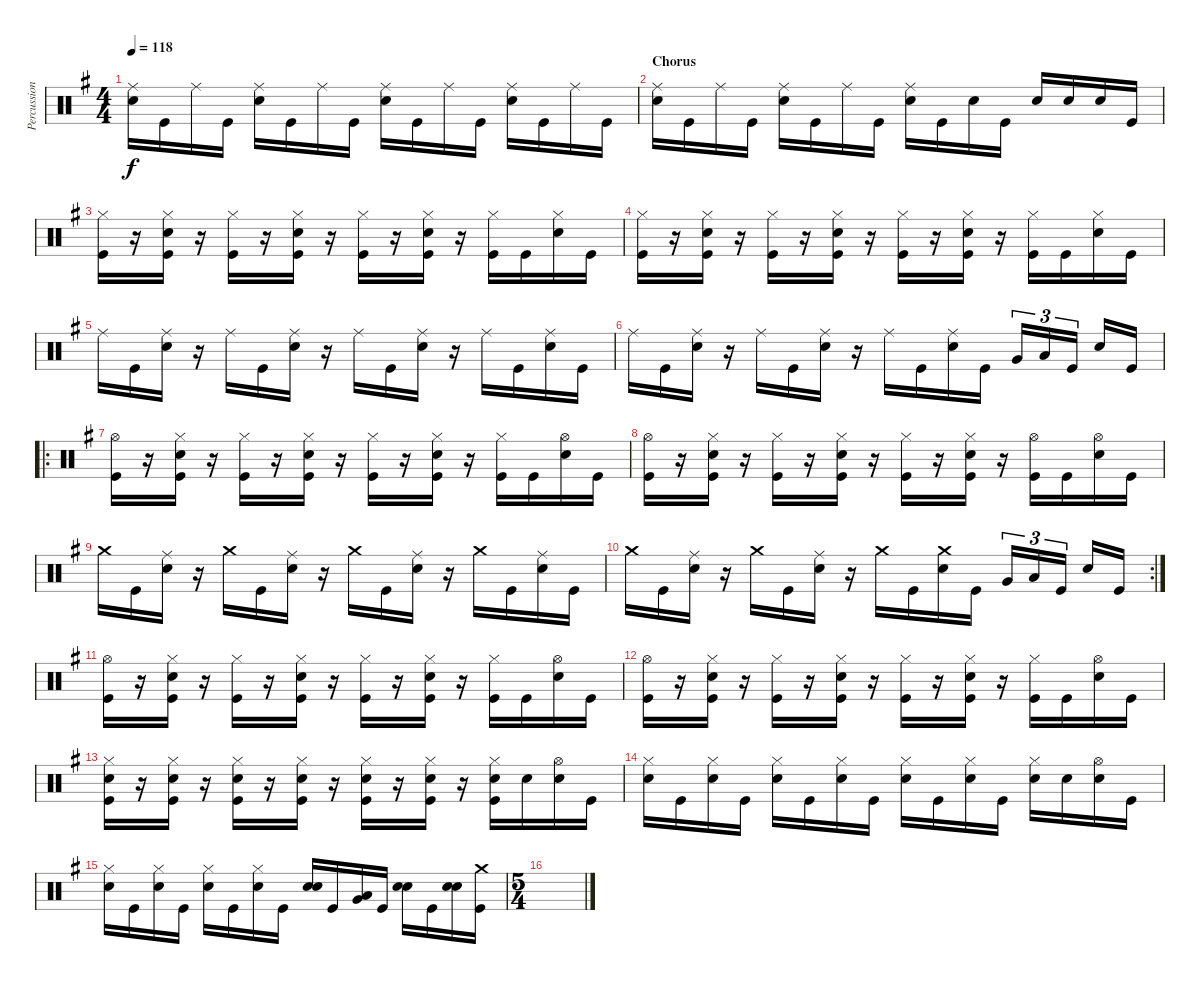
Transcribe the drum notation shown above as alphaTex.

\track ("Percussion" "Percussion") {instrument percussion}
\staff {score}
\articulation defaults
\ts (4 4)
\tempo 118
\clef neutral
\ks g
("Ride (middle)" "Electric Snare (hit)").16{dy f} "Kick (hit)".16 "Ride (middle)".16 "Kick (hit)".16 ("Ride (middle)" "Electric Snare (hit)").16 "Kick (hit)".16 "Ride (middle)".16 "Kick (hit)".16 ("Ride (middle)" "Electric Snare (hit)").16 "Kick (hit)".16 "Ride (middle)".16 "Kick (hit)".16 ("Ride (middle)" "Electric Snare (hit)").16 "Kick (hit)".16 "Ride (middle)".16 "Kick (hit)".16 |
\section ("" "Chorus")
("Ride (middle)" "Electric Snare (hit)").16 "Kick (hit)".16 "Ride (middle)".16 "Kick (hit)".16 ("Ride (middle)" "Electric Snare (hit)").16 "Kick (hit)".16 "Ride (middle)".16 "Kick (hit)".16 ("Ride (middle)" "Electric Snare (hit)").16 "Kick (hit)".16 "Electric Snare (hit)".16 "Kick (hit)".16 "Electric Snare (hit)".16 "Electric Snare (hit)".16 "Electric Snare (hit)".16 "Kick (hit)".16 |
("Hi-Hat (closed)" "Kick (hit)").16 r.16 ("Hi-Hat (closed)" "Electric Snare (hit)" "Kick (hit)").16 r.16 ("Hi-Hat (closed)" "Kick (hit)").16 r.16 ("Hi-Hat (closed)" "Electric Snare (hit)" "Kick (hit)").16 r.16 ("Hi-Hat (closed)" "Kick (hit)").16 r.16 ("Hi-Hat (closed)" "Electric Snare (hit)" "Kick (hit)").16 r.16 ("Hi-Hat (closed)" "Kick (hit)").16 "Kick (hit)".16 ("Hi-Hat (closed)" "Electric Snare (hit)").16 "Kick (hit)".16 |
("Hi-Hat (closed)" "Kick (hit)").16 r.16 ("Hi-Hat (closed)" "Electric Snare (hit)" "Kick (hit)").16 r.16 ("Hi-Hat (closed)" "Kick (hit)").16 r.16 ("Hi-Hat (closed)" "Electric Snare (hit)" "Kick (hit)").16 r.16 ("Hi-Hat (closed)" "Kick (hit)").16 r.16 ("Hi-Hat (closed)" "Electric Snare (hit)" "Kick (hit)").16 r.16 ("Hi-Hat (closed)" "Kick (hit)").16 "Kick (hit)".16 ("Hi-Hat (closed)" "Electric Snare (hit)").16 "Kick (hit)".16 |
"Ride (middle)".16 "Kick (hit)".16 ("Ride (middle)" "Electric Snare (hit)").16 r.16 "Ride (middle)".16 "Kick (hit)".16 ("Ride (middle)" "Electric Snare (hit)").16 r.16 "Ride (middle)".16 "Kick (hit)".16 ("Ride (middle)" "Electric Snare (hit)").16 r.16 "Ride (middle)".16 "Kick (hit)".16 ("Ride (middle)" "Electric Snare (hit)").16 "Kick (hit)".16 |
"Ride (middle)".16 "Kick (hit)".16 ("Ride (middle)" "Electric Snare (hit)").16 r.16 "Ride (middle)".16 "Kick (hit)".16 ("Ride (middle)" "Electric Snare (hit)").16 r.16 "Ride (middle)".16 "Kick (hit)".16 ("Ride (middle)" "Electric Snare (hit)").16 "Kick (hit)".16 "Very Low Tom (hit)".16{tu (3 2)} "Low Floor Tom (hit)".16{tu (3 2)} "Kick (hit)".16{tu (3 2)} "Electric Snare (hit)".16 "Kick (hit)".16 |
\ro
("Hi-Hat (open)" "Kick (hit)").16 r.16 ("Hi-Hat (closed)" "Electric Snare (hit)" "Kick (hit)").16 r.16 ("Hi-Hat (closed)" "Kick (hit)").16 r.16 ("Hi-Hat (closed)" "Electric Snare (hit)" "Kick (hit)").16 r.16 ("Hi-Hat (closed)" "Kick (hit)").16 r.16 ("Hi-Hat (closed)" "Electric Snare (hit)" "Kick (hit)").16 r.16 ("Hi-Hat (closed)" "Kick (hit)").16 "Kick (hit)".16 ("Hi-Hat (open)" "Electric Snare (hit)").16 "Kick (hit)".16 |
("Hi-Hat (open)" "Kick (hit)").16 r.16 ("Hi-Hat (closed)" "Electric Snare (hit)" "Kick (hit)").16 r.16 ("Hi-Hat (closed)" "Kick (hit)").16 r.16 ("Hi-Hat (closed)" "Electric Snare (hit)" "Kick (hit)").16 r.16 ("Hi-Hat (closed)" "Kick (hit)").16 r.16 ("Hi-Hat (closed)" "Electric Snare (hit)" "Kick (hit)").16 r.16 ("Hi-Hat (open)" "Kick (hit)").16 "Kick (hit)".16 ("Hi-Hat (open)" "Electric Snare (hit)").16 "Kick (hit)".16 |
"Crash medium (hit)".16 "Kick (hit)".16 ("Ride (middle)" "Electric Snare (hit)").16 r.16 "Crash medium (hit)".16 "Kick (hit)".16 ("Ride (middle)" "Electric Snare (hit)").16 r.16 "Crash medium (hit)".16 "Kick (hit)".16 ("Ride (middle)" "Electric Snare (hit)").16 r.16 "Crash medium (hit)".16 "Kick (hit)".16 ("Ride (middle)" "Electric Snare (hit)").16 "Kick (hit)".16 |
\rc 2 "Crash medium (hit)".16 "Kick (hit)".16
("Ride (middle)" "Electric Snare (hit)").16 r.16 "Crash medium (hit)".16 "Kick (hit)".16 ("Ride (middle)" "Electric Snare (hit)").16 r.16 "Crash medium (hit)".16 "Kick (hit)".16 ("Crash medium (hit)" "Electric Snare (hit)").16 "Kick (hit)".16 "Very Low Tom (hit)".16{tu (3 2)} "Low Floor Tom (hit)".16{tu (3 2)} "Kick (hit)".16{tu (3 2)} "Electric Snare (hit)".16 "Kick (hit)".16 |
("Hi-Hat (open)" "Kick (hit)").16 r.16 ("Hi-Hat (closed)" "Electric Snare (hit)" "Kick (hit)").16 r.16 ("Hi-Hat (closed)" "Kick (hit)").16 r.16 ("Hi-Hat (closed)" "Electric Snare (hit)" "Kick (hit)").16 r.16 ("Hi-Hat (closed)" "Kick (hit)").16 r.16 ("Hi-Hat (closed)" "Electric Snare (hit)" "Kick (hit)").16 r.16 ("Hi-Hat (closed)" "Kick (hit)").16 "Kick (hit)".16 ("Hi-Hat (open)" "Electric Snare (hit)").16 "Kick (hit)".16 |
("Hi-Hat (open)" "Kick (hit)").16 r.16 ("Hi-Hat (closed)" "Electric Snare (hit)" "Kick (hit)").16 r.16 ("Hi-Hat (closed)" "Kick (hit)").16 r.16 ("Hi-Hat (closed)" "Electric Snare (hit)" "Kick (hit)").16 r.16 ("Hi-Hat (closed)" "Kick (hit)").16 r.16 ("Hi-Hat (closed)" "Electric Snare (hit)" "Kick (hit)").16 r.16 ("Hi-Hat (closed)" "Kick (hit)").16 "Kick (hit)".16 ("Hi-Hat (open)" "Electric Snare (hit)").16 "Kick (hit)".16 |
("Hi-Hat (closed)" "Electric Snare (hit)" "Kick (hit)").16 r.16 ("Hi-Hat (closed)" "Electric Snare (hit)" "Kick (hit)").16 r.16 ("Hi-Hat (closed)" "Electric Snare (hit)" "Kick (hit)").16 r.16 ("Hi-Hat (closed)" "Electric Snare (hit)" "Kick (hit)").16 r.16 ("Hi-Hat (closed)" "Electric Snare (hit)" "Kick (hit)").16 r.16 ("Hi-Hat (closed)" "Electric Snare (hit)" "Kick (hit)").16 r.16 ("Hi-Hat (closed)" "Electric Snare (hit)" "Kick (hit)").16 "Electric Snare (hit)".16 ("Hi-Hat (open)" "Electric Snare (hit)").16 "Kick (hit)".16 |
("Hi-Hat (closed)" "Electric Snare (hit)").16 "Kick (hit)".16 ("Hi-Hat (closed)" "Electric Snare (hit)").16 "Kick (hit)".16 ("Hi-Hat (closed)" "Electric Snare (hit)").16 "Kick (hit)".16 ("Hi-Hat (closed)" "Electric Snare (hit)").16 "Kick (hit)".16 ("Hi-Hat (closed)" "Electric Snare (hit)").16 "Kick (hit)".16 ("Hi-Hat (closed)" "Electric Snare (hit)").16 "Kick (hit)".16 ("Hi-Hat (closed)" "Electric Snare (hit)").16 "Electric Snare (hit)".16 ("Hi-Hat (open)" "Electric Snare (hit)").16 "Kick (hit)".16 |
("Hi-Hat (closed)" "Electric Snare (hit)").16 "Kick (hit)".16 ("Hi-Hat (closed)" "Electric Snare (hit)").16 "Kick (hit)".16 ("Hi-Hat (closed)" "Electric Snare (hit)").16 "Kick (hit)".16 ("Hi-Hat (closed)" "Electric Snare (hit)").16 "Kick (hit)".16 ("Electric Snare (hit)" "Electric Snare (hit)").16 "Kick (hit)".16 ("Very Low Tom (hit)" "Low Floor Tom (hit)").16 "Kick (hit)".16 ("Electric Snare (hit)" "Electric Snare (hit)").16 "Kick (hit)".16 ("Electric Snare (hit)" "Electric Snare (hit)").16 ("Crash medium (hit)" "Kick (hit)").16 |
\ts (5 4)
